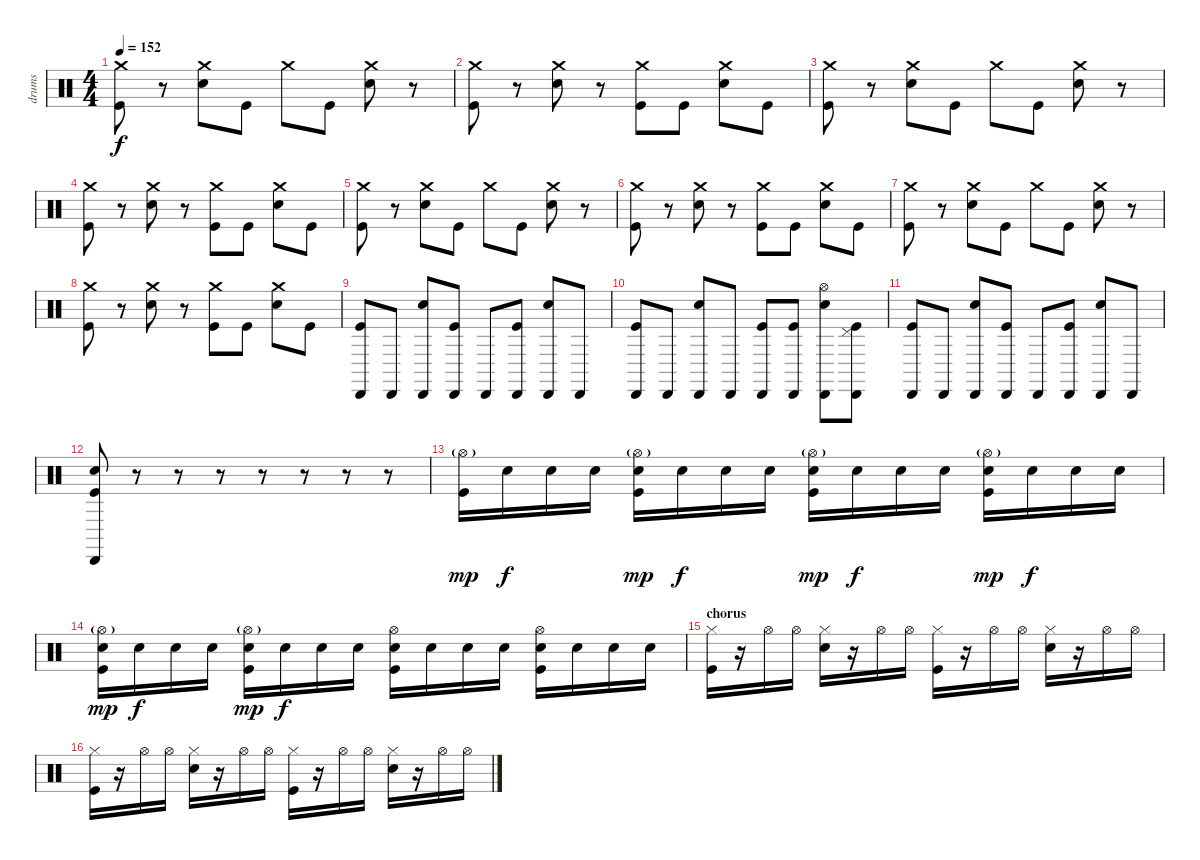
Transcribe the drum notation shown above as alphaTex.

\track ("drums" "drums") {instrument percussion}
\staff {score}
\articulation defaults
\ts (4 4)
\tempo 152
\clef neutral
\ks c
("Crash medium (hit)" "Kick (hit)").8{dy f} r.8 ("Crash medium (hit)" "Snare (hit) 2").8 "Kick (hit)".8 "Crash medium (hit)".8 "Kick (hit)".8 ("Crash medium (hit)" "Snare (hit) 2").8 r.8 |
("Crash medium (hit)" "Kick (hit)").8 r.8 ("Crash medium (hit)" "Snare (hit) 2").8 r.8 ("Crash medium (hit)" "Kick (hit)").8 "Kick (hit)".8 ("Crash medium (hit)" "Snare (hit) 2").8 "Kick (hit)".8 |
("Crash medium (hit)" "Kick (hit)").8 r.8 ("Crash medium (hit)" "Snare (hit) 2").8 "Kick (hit)".8 "Crash medium (hit)".8 "Kick (hit)".8 ("Crash medium (hit)" "Snare (hit) 2").8 r.8 |
("Crash medium (hit)" "Kick (hit)").8 r.8 ("Crash medium (hit)" "Snare (hit) 2").8 r.8 ("Crash medium (hit)" "Kick (hit)").8 "Kick (hit)".8 ("Crash medium (hit)" "Snare (hit) 2").8 "Kick (hit)".8 |
("Crash medium (hit)" "Kick (hit)").8 r.8 ("Crash medium (hit)" "Snare (hit) 2").8 "Kick (hit)".8 "Crash medium (hit)".8 "Kick (hit)".8 ("Crash medium (hit)" "Snare (hit) 2").8 r.8 |
("Crash medium (hit)" "Kick (hit)").8 r.8 ("Crash medium (hit)" "Snare (hit) 2").8 r.8 ("Crash medium (hit)" "Kick (hit)").8 "Kick (hit)".8 ("Crash medium (hit)" "Snare (hit) 2").8 "Kick (hit)".8 |
("Crash medium (hit)" "Kick (hit)").8 r.8 ("Crash medium (hit)" "Snare (hit) 2").8 "Kick (hit)".8 "Crash medium (hit)".8 "Kick (hit)".8 ("Crash medium (hit)" "Snare (hit) 2").8 r.8 |
("Crash medium (hit)" "Kick (hit)").8 r.8 ("Crash medium (hit)" "Snare (hit) 2").8 r.8 ("Crash medium (hit)" "Kick (hit)").8 "Kick (hit)".8 ("Crash medium (hit)" "Snare (hit) 2").8 "Kick (hit)".8 |
("Cabasa (hit)" "Kick (hit)").8 "Cabasa (hit)".8 ("Cabasa (hit)" "Snare (hit) 2").8 ("Cabasa (hit)" "Kick (hit)").8 "Cabasa (hit)".8 ("Cabasa (hit)" "Kick (hit)").8 ("Cabasa (hit)" "Snare (hit) 2").8 "Cabasa (hit)".8 |
("Cabasa (hit)" "Kick (hit)").8 "Cabasa (hit)".8 ("Cabasa (hit)" "Snare (hit) 2").8 "Cabasa (hit)".8 ("Cabasa (hit)" "Kick (hit)").8 ("Cabasa (hit)" "Kick (hit)").8 ("Cabasa (hit)" "Hi-Hat (open)" "Snare (hit) 2").8 ("Cabasa (hit)" "Pedal Hi-Hat (hit)" "Kick (hit)").8 |
("Cabasa (hit)" "Kick (hit)").8 "Cabasa (hit)".8 ("Cabasa (hit)" "Snare (hit) 2").8 ("Cabasa (hit)" "Kick (hit)").8 "Cabasa (hit)".8 ("Cabasa (hit)" "Kick (hit)").8 ("Cabasa (hit)" "Snare (hit) 2").8 "Cabasa (hit)".8 |
("Cabasa (hit)" "Snare (hit) 2" "Kick (hit)").8 r.8 r.8 r.8 r.8 r.8 r.8 r.8 |
("Hi-Hat (open)"{g} "Kick (hit)").16{dy mp} "Snare (hit) 2".16{dy f} "Snare (hit) 2".16 "Snare (hit) 2".16 ("Hi-Hat (open)"{g} "Snare (hit) 2" "Kick (hit)").16{dy mp} "Snare (hit) 2".16{dy f} "Snare (hit) 2".16 "Snare (hit) 2".16 ("Hi-Hat (open)"{g} "Snare (hit) 2" "Kick (hit)").16{dy mp} "Snare (hit) 2".16{dy f} "Snare (hit) 2".16 "Snare (hit) 2".16 ("Hi-Hat (open)"{g} "Snare (hit) 2" "Kick (hit)").16{dy mp} "Snare (hit) 2".16{dy f} "Snare (hit) 2".16 "Snare (hit) 2".16 |
("Hi-Hat (open)"{g} "Snare (hit) 2" "Kick (hit)").16{dy mp} "Snare (hit) 2".16{dy f} "Snare (hit) 2".16 "Snare (hit) 2".16 ("Hi-Hat (open)"{g} "Snare (hit) 2" "Kick (hit)").16{dy mp} "Snare (hit) 2".16{dy f} "Snare (hit) 2".16 "Snare (hit) 2".16 ("Hi-Hat (open)" "Snare (hit) 2" "Kick (hit)").16 "Snare (hit) 2".16 "Snare (hit) 2".16 "Snare (hit) 2".16 ("Hi-Hat (open)" "Snare (hit) 2" "Kick (hit)").16 "Snare (hit) 2".16 "Snare (hit) 2".16 "Snare (hit) 2".16 |
\section ("" "chorus")
("Hi-Hat (closed)" "Kick (hit)").16 r.16 "Hi-Hat (open)".16 "Hi-Hat (open)".16 ("Hi-Hat (closed)" "Snare (hit) 2").16 r.16 "Hi-Hat (open)".16 "Hi-Hat (open)".16 ("Hi-Hat (closed)" "Kick (hit)").16 r.16 "Hi-Hat (open)".16 "Hi-Hat (open)".16 ("Hi-Hat (closed)" "Snare (hit) 2").16 r.16 "Hi-Hat (open)".16 "Hi-Hat (open)".16 |
("Hi-Hat (closed)" "Kick (hit)").16 r.16 "Hi-Hat (open)".16 "Hi-Hat (open)".16 ("Hi-Hat (closed)" "Snare (hit) 2").16 r.16 "Hi-Hat (open)".16 "Hi-Hat (open)".16 ("Hi-Hat (closed)" "Kick (hit)").16 r.16 "Hi-Hat (open)".16 "Hi-Hat (open)".16 ("Hi-Hat (closed)" "Snare (hit) 2").16 r.16 "Hi-Hat (open)".16 "Hi-Hat (open)".16
